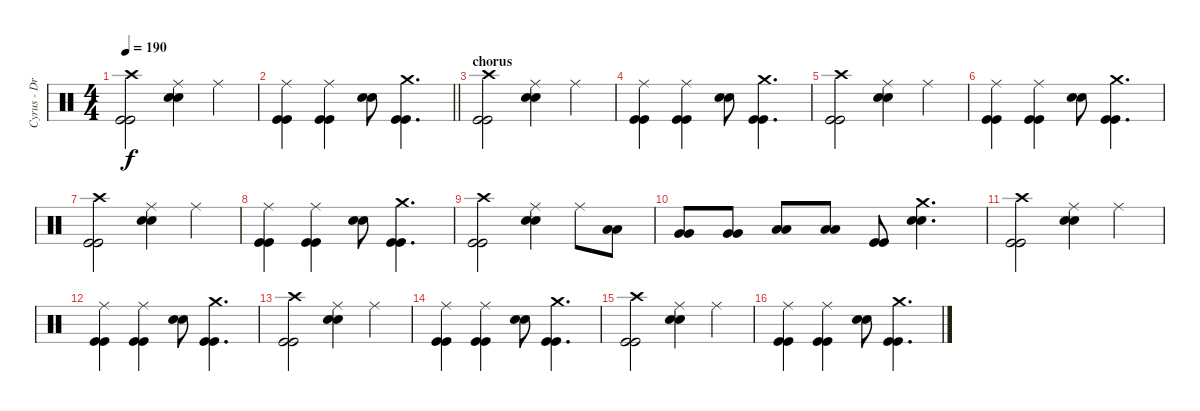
\track ("Cyrus - Drums" "Cyrus - Dr") {instrument percussion}
\staff {score}
\articulation defaults
\ts (4 4)
\tempo 190
\clef neutral
\ks c
("Kick (hit)" "Kick (hit)" "Crash high (hit)").2{dy f} ("Snare (hit) 2" "Snare (hit) 2" "Ride (middle)").4 "Ride (middle)".4 |
\barLineRight lightlight
("Kick (hit)" "Kick (hit)" "Ride (middle)").4 ("Kick (hit)" "Kick (hit)" "Ride (middle)").4 ("Snare (hit) 2" "Snare (hit) 2").8 ("Kick (hit)" "Kick (hit)" "Crash medium (hit)").4{d} |
\section ("" "chorus")
("Kick (hit)" "Kick (hit)" "Crash high (hit)").2 ("Snare (hit) 2" "Snare (hit) 2" "Ride (middle)").4 "Ride (middle)".4 |
("Kick (hit)" "Kick (hit)" "Ride (middle)").4 ("Kick (hit)" "Kick (hit)" "Ride (middle)").4 ("Snare (hit) 2" "Snare (hit) 2").8 ("Kick (hit)" "Kick (hit)" "Crash medium (hit)").4{d} |
("Kick (hit)" "Kick (hit)" "Crash high (hit)").2 ("Snare (hit) 2" "Snare (hit) 2" "Ride (middle)").4 "Ride (middle)".4 |
("Kick (hit)" "Kick (hit)" "Ride (middle)").4 ("Kick (hit)" "Kick (hit)" "Ride (middle)").4 ("Snare (hit) 2" "Snare (hit) 2").8 ("Kick (hit)" "Kick (hit)" "Crash medium (hit)").4{d} |
("Kick (hit)" "Kick (hit)" "Crash high (hit)").2 ("Snare (hit) 2" "Snare (hit) 2" "Ride (middle)").4 "Ride (middle)".4 |
("Kick (hit)" "Kick (hit)" "Ride (middle)").4 ("Kick (hit)" "Kick (hit)" "Ride (middle)").4 ("Snare (hit) 2" "Snare (hit) 2").8 ("Kick (hit)" "Kick (hit)" "Crash medium (hit)").4{d} |
("Kick (hit)" "Kick (hit)" "Crash high (hit)").2 ("Snare (hit) 2" "Snare (hit) 2" "Ride (middle)").4 "Ride (middle)".8 ("Low Tom (hit)" "Low Tom (hit)").8 |
("Very Low Tom (hit)" "Very Low Tom (hit)").8 ("Very Low Tom (hit)" "Very Low Tom (hit)").8 ("Low Floor Tom (hit)" "Low Floor Tom (hit)").8 ("Low Floor Tom (hit)" "Low Floor Tom (hit)").8 ("Kick (hit)" "Kick (hit)").8 ("Snare (hit) 2" "Snare (hit) 2" "Crash medium (hit)").4{d} |
("Kick (hit)" "Kick (hit)" "Crash high (hit)").2 ("Snare (hit) 2" "Snare (hit) 2" "Ride (middle)").4 "Ride (middle)".4 |
("Kick (hit)" "Kick (hit)" "Ride (middle)").4 ("Kick (hit)" "Kick (hit)" "Ride (middle)").4 ("Snare (hit) 2" "Snare (hit) 2").8 ("Kick (hit)" "Kick (hit)" "Crash medium (hit)").4{d} |
("Kick (hit)" "Kick (hit)" "Crash high (hit)").2 ("Snare (hit) 2" "Snare (hit) 2" "Ride (middle)").4 "Ride (middle)".4 |
("Kick (hit)" "Kick (hit)" "Ride (middle)").4 ("Kick (hit)" "Kick (hit)" "Ride (middle)").4 ("Snare (hit) 2" "Snare (hit) 2").8 ("Kick (hit)" "Kick (hit)" "Crash medium (hit)").4{d} |
("Kick (hit)" "Kick (hit)" "Crash high (hit)").2 ("Snare (hit) 2" "Snare (hit) 2" "Ride (middle)").4 "Ride (middle)".4 |
("Kick (hit)" "Kick (hit)" "Ride (middle)").4 ("Kick (hit)" "Kick (hit)" "Ride (middle)").4 ("Snare (hit) 2" "Snare (hit) 2").8 ("Kick (hit)" "Kick (hit)" "Crash medium (hit)").4{d}
